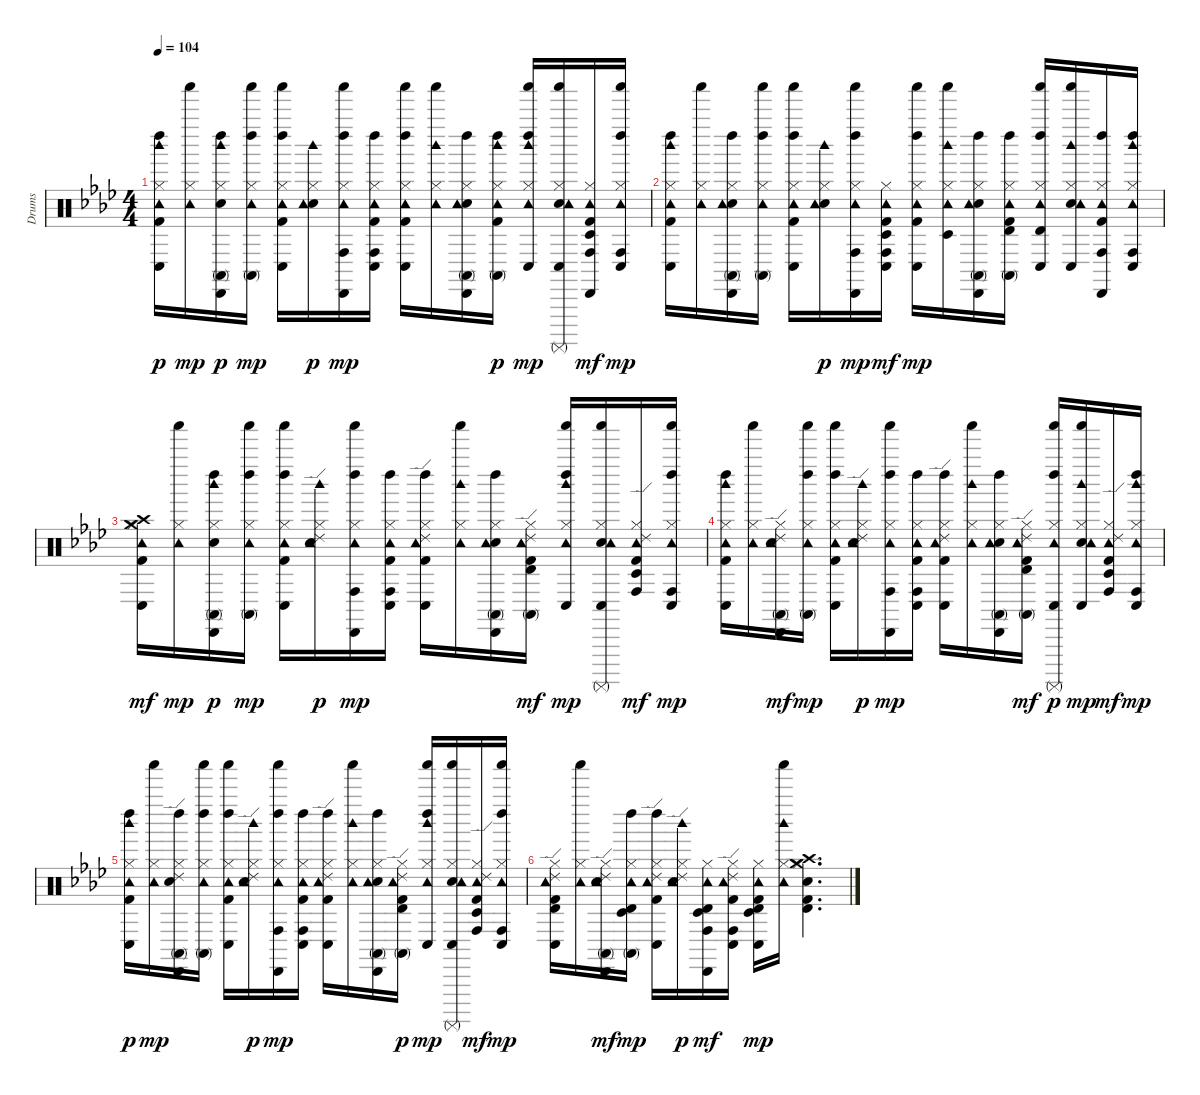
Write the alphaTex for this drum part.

\track ("Drums" "Drums") {instrument percussion}
\staff {score}
\articulation defaults
\ts (4 4)
\tempo 104
\clef neutral
\ks ab
("Kick (hit) 2" "Hi-Hat (closed)" "Tambourine (hit)" "Conga low (hit)" "Left Maraca (hit)" "Woodblock high (hit)").16{dy p} ("Hi-Hat (closed)" "Tambourine (hit)" "Shaker (hit)").16{dy mp} ("Hand Clap (hit)" "Hi-Hat (closed)" "Conga high (mute)" "Cabasa (hit)" "Left Maraca (hit)" "Woodblock high (hit)").16{dy p} ("Hi-Hat (closed)" "Tambourine (hit)" "Conga high (mute)" "Left Maraca (hit)" "Shaker (hit)").16{dy mp} ("Kick (hit) 2" "Hi-Hat (closed)" "Tambourine (hit)" "Conga low (hit)" "Left Maraca (hit)" "Shaker (hit)").16 ("Hand Clap (hit)" "Hi-Hat (closed)" "Tambourine (hit)" "Woodblock high (hit)").16{dy p} ("Hi-Hat (closed)" "Tambourine (hit)" "Conga high (hit)" "Cabasa (hit)" "Left Maraca (hit)" "Shaker (hit)").16{dy mp} ("Kick (hit) 2" "Hi-Hat (closed)" "Tambourine (hit)" "Conga high (hit)" "Conga low (hit)" "Left Maraca (hit)").16 ("Kick (hit) 2" "Hi-Hat (closed)" "Tambourine (hit)" "Conga low (hit)" "Left Maraca (hit)" "Shaker (hit)").16 ("Hi-Hat (closed)" "Tambourine (hit)" "Woodblock high (hit)" "Shaker (hit)").16 ("Hand Clap (hit)" "Hi-Hat (closed)" "Tambourine (hit)" "Conga high (mute)" "Cabasa (hit)" "Left Maraca (hit)").16 ("Kick (hit) 2" "Hi-Hat (closed)" "Tambourine (hit)" "Conga high (mute)" "Left Maraca (hit)" "Woodblock high (hit)").16{dy p} ("Hi-Hat (closed)" "Tambourine (hit)" "Conga low (hit)" "Left Maraca (hit)" "Woodblock high (hit)" "Shaker (hit)").16{dy mp} ("Hand Clap (hit)" "Hi-Hat (closed)" "Tambourine (hit)" "Conga low (hit)" "Shaker (hit)" "Surdo (mute)").16 ("Kick (hit) 2" "Hi-Hat (closed)" "Tambourine (hit)" "Conga high (hit)" "Timbale low (hit)" "Cabasa (hit)").16{dy mf} ("Hi-Hat (closed)" "Tambourine (hit)" "Conga high (hit)" "Conga low (hit)" "Left Maraca (hit)" "Shaker (hit)").16{dy mp} |
("Kick (hit) 2" "Hi-Hat (closed)" "Tambourine (hit)" "Conga low (hit)" "Left Maraca (hit)" "Woodblock high (hit)").16 ("Hi-Hat (closed)" "Tambourine (hit)" "Shaker (hit)").16 ("Hand Clap (hit)" "Hi-Hat (closed)" "Tambourine (hit)" "Conga high (mute)" "Cabasa (hit)" "Left Maraca (hit)").16 ("Hi-Hat (closed)" "Tambourine (hit)" "Conga high (mute)" "Left Maraca (hit)" "Shaker (hit)").16 ("Kick (hit) 2" "Hi-Hat (closed)" "Tambourine (hit)" "Conga low (hit)" "Left Maraca (hit)" "Shaker (hit)").16 ("Hand Clap (hit)" "Hi-Hat (closed)" "Tambourine (hit)" "Woodblock high (hit)").16{dy p} ("Hi-Hat (closed)" "Tambourine (hit)" "Conga high (hit)" "Cabasa (hit)" "Left Maraca (hit)" "Shaker (hit)").16{dy mp} ("Kick (hit) 2" "Hi-Hat (closed)" "Tambourine (hit)" "Conga high (hit)" "Conga low (hit)" "Timbale low (hit)").16{dy mf} ("Kick (hit) 2" "Hi-Hat (closed)" "Tambourine (hit)" "Conga low (hit)" "Left Maraca (hit)" "Shaker (hit)").16{dy mp} ("Hi-Hat (closed)" "Tambourine (hit)" "Timbale low (hit)" "Woodblock high (hit)" "Shaker (hit)").16 ("Hand Clap (hit)" "Hi-Hat (closed)" "Tambourine (hit)" "Conga high (mute)" "Cabasa (hit)" "Left Maraca (hit)").16 ("Kick (hit) 2" "Hi-Hat (closed)" "Tambourine (hit)" "Conga high (mute)" "Timbale high (hit)" "Left Maraca (hit)").16 ("Hi-Hat (closed)" "Tambourine (hit)" "Conga low (hit)" "Timbale high (hit)" "Left Maraca (hit)" "Shaker (hit)").16 ("Hand Clap (hit)" "Hi-Hat (closed)" "Tambourine (hit)" "Conga low (hit)" "Woodblock high (hit)" "Shaker (hit)").16 ("Kick (hit) 2" "Hi-Hat (closed)" "Tambourine (hit)" "Conga high (hit)" "Cabasa (hit)" "Left Maraca (hit)").16 ("Hi-Hat (closed)" "Tambourine (hit)" "Conga high (hit)" "Conga low (hit)" "Left Maraca (hit)" "Woodblock high (hit)").16 |
("Kick (hit) 2" "Hi-Hat (closed)" "Crash high (hit)" "Tambourine (hit)" "Crash medium (hit)" "Conga low (hit)").16{dy mf} ("Hi-Hat (closed)" "Tambourine (hit)" "Shaker (hit)").16{dy mp} ("Hand Clap (hit)" "Hi-Hat (closed)" "Conga high (mute)" "Cabasa (hit)" "Left Maraca (hit)" "Woodblock high (hit)").16{dy p} ("Hi-Hat (closed)" "Tambourine (hit)" "Conga high (mute)" "Left Maraca (hit)" "Shaker (hit)").16{dy mp} ("Kick (hit) 2" "Hi-Hat (closed)" "Tambourine (hit)" "Conga low (hit)" "Left Maraca (hit)" "Shaker (hit)").16 ("Hand Clap (hit)" "Hi-Hat (closed)" "Tambourine (hit)" "Ride (edge) 2" "Woodblock high (hit)").16{dy p} ("Hi-Hat (closed)" "Tambourine (hit)" "Conga high (hit)" "Cabasa (hit)" "Left Maraca (hit)" "Shaker (hit)").16{dy mp} ("Kick (hit) 2" "Hi-Hat (closed)" "Tambourine (hit)" "Conga high (hit)" "Conga low (hit)" "Left Maraca (hit)").16 ("Kick (hit) 2" "Hi-Hat (closed)" "Tambourine (hit)" "Ride (edge) 2" "Conga low (hit)" "Left Maraca (hit)").16 ("Hi-Hat (closed)" "Tambourine (hit)" "Woodblock high (hit)" "Shaker (hit)").16 ("Hand Clap (hit)" "Hi-Hat (closed)" "Tambourine (hit)" "Conga high (mute)" "Cabasa (hit)" "Left Maraca (hit)").16 ("Kick (hit) 2" "Hi-Hat (closed)" "Tambourine (hit)" "Ride (edge) 2" "Conga high (mute)" "Timbale high (hit)").16{dy mf} ("Hi-Hat (closed)" "Tambourine (hit)" "Conga low (hit)" "Left Maraca (hit)" "Woodblock high (hit)" "Shaker (hit)").16{dy mp} ("Hand Clap (hit)" "Hi-Hat (closed)" "Tambourine (hit)" "Conga low (hit)" "Shaker (hit)" "Surdo (mute)").16 ("Kick (hit) 2" "Hi-Hat (closed)" "Tambourine (hit)" "Ride (edge) 2" "Conga high (hit)" "Timbale low (hit)").16{dy mf} ("Hi-Hat (closed)" "Tambourine (hit)" "Conga high (hit)" "Conga low (hit)" "Left Maraca (hit)" "Shaker (hit)").16{dy mp} |
("Kick (hit) 2" "Hi-Hat (closed)" "Tambourine (hit)" "Conga low (hit)" "Left Maraca (hit)" "Woodblock high (hit)").16 ("Hi-Hat (closed)" "Tambourine (hit)" "Shaker (hit)").16 ("Hand Clap (hit)" "Hi-Hat (closed)" "Tambourine (hit)" "Ride (edge) 2" "Conga high (mute)" "Cabasa (hit)").16{dy mf} ("Hi-Hat (closed)" "Tambourine (hit)" "Conga high (mute)" "Left Maraca (hit)" "Shaker (hit)").16{dy mp} ("Kick (hit) 2" "Hi-Hat (closed)" "Tambourine (hit)" "Conga low (hit)" "Left Maraca (hit)" "Shaker (hit)").16 ("Hand Clap (hit)" "Hi-Hat (closed)" "Tambourine (hit)" "Ride (edge) 2" "Woodblock high (hit)").16{dy p} ("Hi-Hat (closed)" "Tambourine (hit)" "Conga high (hit)" "Cabasa (hit)" "Left Maraca (hit)" "Shaker (hit)").16{dy mp} ("Kick (hit) 2" "Hi-Hat (closed)" "Tambourine (hit)" "Conga high (hit)" "Conga low (hit)" "Left Maraca (hit)").16 ("Kick (hit) 2" "Hi-Hat (closed)" "Tambourine (hit)" "Ride (edge) 2" "Conga low (hit)" "Left Maraca (hit)").16 ("Hi-Hat (closed)" "Tambourine (hit)" "Woodblock high (hit)" "Shaker (hit)").16 ("Hand Clap (hit)" "Hi-Hat (closed)" "Tambourine (hit)" "Conga high (mute)" "Cabasa (hit)" "Left Maraca (hit)").16 ("Kick (hit) 2" "Hi-Hat (closed)" "Tambourine (hit)" "Ride (edge) 2" "Conga high (mute)" "Timbale high (hit)").16{dy mf} ("Hi-Hat (closed)" "Tambourine (hit)" "Conga low (hit)" "Left Maraca (hit)" "Shaker (hit)" "Surdo (mute)").16{dy p} ("Hand Clap (hit)" "Hi-Hat (closed)" "Tambourine (hit)" "Conga low (hit)" "Woodblock high (hit)" "Shaker (hit)").16{dy mp} ("Kick (hit) 2" "Hi-Hat (closed)" "Tambourine (hit)" "Ride (edge) 2" "Conga high (hit)" "Timbale low (hit)").16{dy mf} ("Hi-Hat (closed)" "Tambourine (hit)" "Conga high (hit)" "Conga low (hit)" "Left Maraca (hit)" "Woodblock high (hit)").16{dy mp} |
("Kick (hit) 2" "Hi-Hat (closed)" "Tambourine (hit)" "Conga low (hit)" "Left Maraca (hit)" "Woodblock high (hit)").16{dy p} ("Hi-Hat (closed)" "Tambourine (hit)" "Shaker (hit)").16{dy mp} ("Hand Clap (hit)" "Hi-Hat (closed)" "Ride (edge) 2" "Conga high (mute)" "Cabasa (hit)" "Left Maraca (hit)").16 ("Hi-Hat (closed)" "Tambourine (hit)" "Conga high (mute)" "Left Maraca (hit)" "Shaker (hit)").16 ("Kick (hit) 2" "Hi-Hat (closed)" "Tambourine (hit)" "Conga low (hit)" "Left Maraca (hit)" "Shaker (hit)").16 ("Hand Clap (hit)" "Hi-Hat (closed)" "Tambourine (hit)" "Ride (edge) 2" "Woodblock high (hit)").16{dy p} ("Hi-Hat (closed)" "Tambourine (hit)" "Conga high (hit)" "Cabasa (hit)" "Left Maraca (hit)" "Shaker (hit)").16{dy mp} ("Kick (hit) 2" "Hi-Hat (closed)" "Tambourine (hit)" "Conga high (hit)" "Conga low (hit)" "Left Maraca (hit)").16 ("Kick (hit) 2" "Hi-Hat (closed)" "Tambourine (hit)" "Ride (edge) 2" "Conga low (hit)" "Left Maraca (hit)").16 ("Hi-Hat (closed)" "Tambourine (hit)" "Woodblock high (hit)" "Shaker (hit)").16 ("Hand Clap (hit)" "Hi-Hat (closed)" "Tambourine (hit)" "Conga high (mute)" "Cabasa (hit)" "Left Maraca (hit)").16 ("Kick (hit) 2" "Hi-Hat (closed)" "Tambourine (hit)" "Ride (edge) 2" "Conga high (mute)" "Timbale high (hit)").16{dy p} ("Hi-Hat (closed)" "Tambourine (hit)" "Conga low (hit)" "Left Maraca (hit)" "Woodblock high (hit)" "Shaker (hit)").16{dy mp} ("Hand Clap (hit)" "Hi-Hat (closed)" "Tambourine (hit)" "Conga low (hit)" "Shaker (hit)" "Surdo (mute)").16 ("Kick (hit) 2" "Hi-Hat (closed)" "Tambourine (hit)" "Ride (edge) 2" "Conga high (hit)" "Timbale low (hit)").16{dy mf} ("Hi-Hat (closed)" "Tambourine (hit)" "Conga high (hit)" "Conga low (hit)" "Left Maraca (hit)" "Shaker (hit)").16{dy mp} |
("Kick (hit) 2" "Hi-Hat (closed)" "Tambourine (hit)" "Ride (edge) 2" "Conga low (hit)" "Timbale high (hit)").16 ("Hi-Hat (closed)" "Tambourine (hit)" "Shaker (hit)").16 ("Hand Clap (hit)" "Hi-Hat (closed)" "Tambourine (hit)" "Ride (edge) 2" "Conga high (mute)" "Cabasa (hit)").16{dy mf} ("Hi-Hat (closed)" "Tambourine (hit)" "Conga high (mute)" "Timbale high (hit)" "Timbale low (hit)" "Left Maraca (hit)").16{dy mp} ("Kick (hit) 2" "Hi-Hat (closed)" "Tambourine (hit)" "Ride (edge) 2" "Conga low (hit)" "Left Maraca (hit)").16 ("Hand Clap (hit)" "Hi-Hat (closed)" "Tambourine (hit)" "Ride (edge) 2" "Woodblock high (hit)").16{dy p} ("Hi-Hat (closed)" "Tambourine (hit)" "Conga high (hit)" "Timbale high (hit)" "Timbale low (hit)" "Cabasa (hit)").16{dy mf} ("Kick (hit) 2" "Hi-Hat (closed)" "Tambourine (hit)" "Ride (edge) 2" "Conga high (hit)" "Conga low (hit)").16 ("Kick (hit) 2" "Hi-Hat (closed)" "Tambourine (hit)" "Conga low (hit)" "Timbale high (hit)" "Timbale low (hit)").16{dy mp} ("Hi-Hat (closed)" "Tambourine (hit)" "Woodblock high (hit)" "Shaker (hit)").16 ("Kick (hit) 2" "Hand Clap (hit)" "Hi-Hat (closed)" "Crash high (hit)" "Crash medium (hit)" "Timbale high (hit)").4{d}
